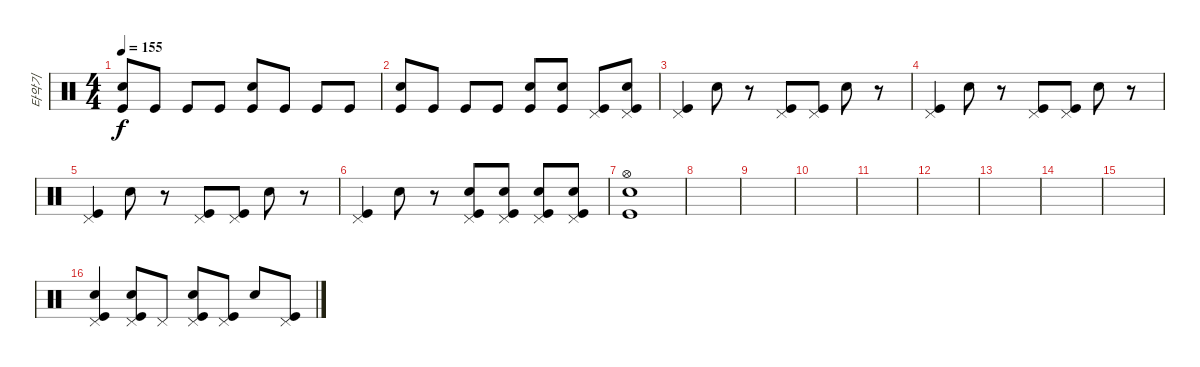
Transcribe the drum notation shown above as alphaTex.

\track ("타악기" "타악기") {instrument percussion}
\staff {score}
\articulation defaults
\ts (4 4)
\tempo 155
\clef neutral
\ks c
("Electric Snare (hit)" "Kick (hit)").8{dy f} "Kick (hit)".8 "Kick (hit)".8 "Kick (hit)".8 ("Electric Snare (hit)" "Kick (hit)").8 "Kick (hit)".8 "Kick (hit)".8 "Kick (hit)".8 |
("Electric Snare (hit)" "Kick (hit)").8 "Kick (hit)".8 "Kick (hit)".8 "Kick (hit)".8 ("Electric Snare (hit)" "Kick (hit)").8 ("Electric Snare (hit)" "Kick (hit)").8 ("Pedal Hi-Hat (hit)" "Kick (hit)").8 ("Pedal Hi-Hat (hit)" "Snare (hit) 2" "Kick (hit)").8 |
("Pedal Hi-Hat (hit)" "Kick (hit)").4 "Electric Snare (hit)".8 r.8 ("Pedal Hi-Hat (hit)" "Kick (hit)").8 ("Pedal Hi-Hat (hit)" "Kick (hit)").8 "Electric Snare (hit)".8 r.8 |
("Pedal Hi-Hat (hit)" "Kick (hit)").4 "Electric Snare (hit)".8 r.8 ("Pedal Hi-Hat (hit)" "Kick (hit)").8 ("Pedal Hi-Hat (hit)" "Kick (hit)").8 "Electric Snare (hit)".8 r.8 |
("Pedal Hi-Hat (hit)" "Kick (hit)").4 "Electric Snare (hit)".8 r.8 ("Pedal Hi-Hat (hit)" "Kick (hit)").8 ("Pedal Hi-Hat (hit)" "Kick (hit)").8 "Electric Snare (hit)".8 r.8 |
("Pedal Hi-Hat (hit)" "Kick (hit)").4 "Electric Snare (hit)".8 r.8 ("Pedal Hi-Hat (hit)" "Electric Snare (hit)" "Kick (hit)").8 ("Pedal Hi-Hat (hit)" "Electric Snare (hit)" "Kick (hit)").8 ("Pedal Hi-Hat (hit)" "Electric Snare (hit)" "Kick (hit)").8 ("Pedal Hi-Hat (hit)" "Electric Snare (hit)" "Kick (hit)").8 |
("Hi-Hat (open)" "Electric Snare (hit)" "Kick (hit)").1 |
|
|
|
|
|
|
|
|
("Pedal Hi-Hat (hit)" "Snare (hit) 2" "Kick (hit)").4 ("Pedal Hi-Hat (hit)" "Electric Snare (hit)" "Kick (hit)").8 "Pedal Hi-Hat (hit)".8 ("Pedal Hi-Hat (hit)" "Snare (hit) 2" "Kick (hit)").8 ("Pedal Hi-Hat (hit)" "Kick (hit)").8 "Electric Snare (hit)".8 ("Pedal Hi-Hat (hit)" "Kick (hit)").8
